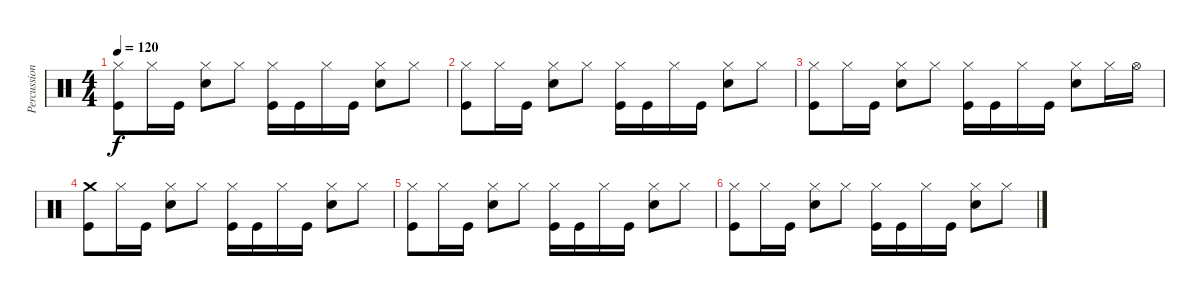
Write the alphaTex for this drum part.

\track ("Percussions" "Percussion") {instrument percussion}
\staff {score}
\articulation defaults
\ts (4 4)
\tempo 120
\clef neutral
\ks c
("Hi-Hat (closed)" "Kick (hit)").8{dy f} "Hi-Hat (closed)".16 "Kick (hit)".16 ("Hi-Hat (closed)" "Snare (hit) 2").8 "Hi-Hat (closed)".8 ("Hi-Hat (closed)" "Kick (hit)").16 "Kick (hit)".16 "Hi-Hat (closed)".16 "Kick (hit)".16 ("Hi-Hat (closed)" "Snare (hit) 2").8 "Hi-Hat (closed)".8 |
("Hi-Hat (closed)" "Kick (hit)").8 "Hi-Hat (closed)".16 "Kick (hit)".16 ("Hi-Hat (closed)" "Snare (hit) 2").8 "Hi-Hat (closed)".8 ("Hi-Hat (closed)" "Kick (hit)").16 "Kick (hit)".16 "Hi-Hat (closed)".16 "Kick (hit)".16 ("Hi-Hat (closed)" "Snare (hit) 2").8 "Hi-Hat (closed)".8 |
("Hi-Hat (closed)" "Kick (hit)").8 "Hi-Hat (closed)".16 "Kick (hit)".16 ("Hi-Hat (closed)" "Snare (hit) 2").8 "Hi-Hat (closed)".8 ("Hi-Hat (closed)" "Kick (hit)").16 "Kick (hit)".16 "Hi-Hat (closed)".16 "Kick (hit)".16 ("Hi-Hat (closed)" "Snare (hit) 2").8 "Hi-Hat (closed)".16 "Hi-Hat (open)".16 |
("Crash medium (hit)" "Kick (hit)").8 "Hi-Hat (closed)".16 "Kick (hit)".16 ("Hi-Hat (closed)" "Snare (hit) 2").8 "Hi-Hat (closed)".8 ("Hi-Hat (closed)" "Kick (hit)").16 "Kick (hit)".16 "Hi-Hat (closed)".16 "Kick (hit)".16 ("Hi-Hat (closed)" "Snare (hit) 2").8 "Hi-Hat (closed)".8 |
("Hi-Hat (closed)" "Kick (hit)").8 "Hi-Hat (closed)".16 "Kick (hit)".16 ("Hi-Hat (closed)" "Snare (hit) 2").8 "Hi-Hat (closed)".8 ("Hi-Hat (closed)" "Kick (hit)").16 "Kick (hit)".16 "Hi-Hat (closed)".16 "Kick (hit)".16 ("Hi-Hat (closed)" "Snare (hit) 2").8 "Hi-Hat (closed)".8 |
("Hi-Hat (closed)" "Kick (hit)").8 "Hi-Hat (closed)".16 "Kick (hit)".16 ("Hi-Hat (closed)" "Snare (hit) 2").8 "Hi-Hat (closed)".8 ("Hi-Hat (closed)" "Kick (hit)").16 "Kick (hit)".16 "Hi-Hat (closed)".16 "Kick (hit)".16 ("Hi-Hat (closed)" "Snare (hit) 2").8 "Hi-Hat (closed)".8
